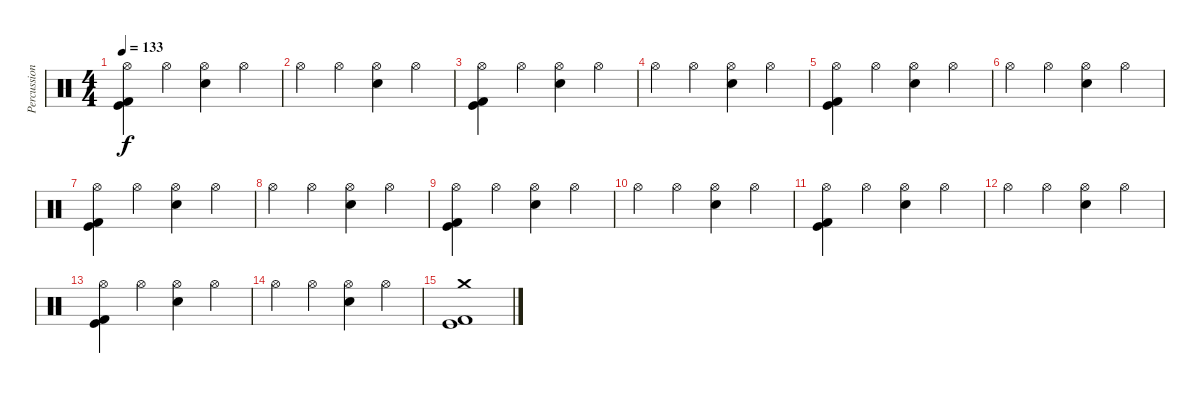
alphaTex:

\track ("Percussion" "Percussion") {instrument percussion}
\staff {score}
\articulation defaults
\ts (4 4)
\tempo 133
\clef neutral
\ks c
("Hi-Hat (open)" "Kick (hit)" "Kick (hit) 2").4{dy f} "Hi-Hat (open)".4 ("Hi-Hat (open)" "Electric Snare (hit)").4 "Hi-Hat (open)".4 |
"Hi-Hat (open)".4 "Hi-Hat (open)".4 ("Hi-Hat (open)" "Electric Snare (hit)").4 "Hi-Hat (open)".4 |
("Hi-Hat (open)" "Kick (hit)" "Kick (hit) 2").4 "Hi-Hat (open)".4 ("Hi-Hat (open)" "Electric Snare (hit)").4 "Hi-Hat (open)".4 |
"Hi-Hat (open)".4 "Hi-Hat (open)".4 ("Hi-Hat (open)" "Electric Snare (hit)").4 "Hi-Hat (open)".4 |
("Hi-Hat (open)" "Kick (hit)" "Kick (hit) 2").4 "Hi-Hat (open)".4 ("Hi-Hat (open)" "Electric Snare (hit)").4 "Hi-Hat (open)".4 |
"Hi-Hat (open)".4 "Hi-Hat (open)".4 ("Hi-Hat (open)" "Electric Snare (hit)").4 "Hi-Hat (open)".4 |
("Hi-Hat (open)" "Kick (hit)" "Kick (hit) 2").4 "Hi-Hat (open)".4 ("Hi-Hat (open)" "Electric Snare (hit)").4 "Hi-Hat (open)".4 |
"Hi-Hat (open)".4 "Hi-Hat (open)".4 ("Hi-Hat (open)" "Electric Snare (hit)").4 "Hi-Hat (open)".4 |
("Hi-Hat (open)" "Kick (hit)" "Kick (hit) 2").4 "Hi-Hat (open)".4 ("Hi-Hat (open)" "Electric Snare (hit)").4 "Hi-Hat (open)".4 |
"Hi-Hat (open)".4 "Hi-Hat (open)".4 ("Hi-Hat (open)" "Electric Snare (hit)").4 "Hi-Hat (open)".4 |
("Hi-Hat (open)" "Kick (hit)" "Kick (hit) 2").4 "Hi-Hat (open)".4 ("Hi-Hat (open)" "Electric Snare (hit)").4 "Hi-Hat (open)".4 |
"Hi-Hat (open)".4 "Hi-Hat (open)".4 ("Hi-Hat (open)" "Electric Snare (hit)").4 "Hi-Hat (open)".4 |
("Hi-Hat (open)" "Kick (hit)" "Kick (hit) 2").4 "Hi-Hat (open)".4 ("Hi-Hat (open)" "Electric Snare (hit)").4 "Hi-Hat (open)".4 |
"Hi-Hat (open)".4 "Hi-Hat (open)".4 ("Hi-Hat (open)" "Electric Snare (hit)").4 "Hi-Hat (open)".4 |
("Crash medium (hit)" "Kick (hit)" "Kick (hit) 2").1
